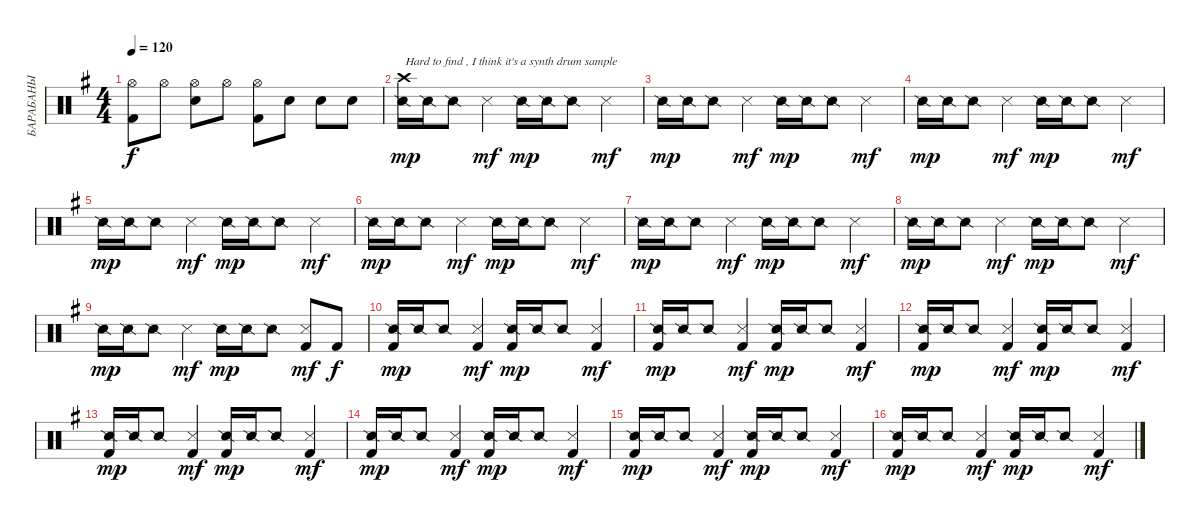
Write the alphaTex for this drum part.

\track ("БАРАБАНЫ" "БАРАБАНЫ") {instrument percussion}
\staff {score}
\articulation defaults
\ts (4 4)
\tempo 120
\clef neutral
\ks g
("Hi-Hat (open)" "Kick (hit) 2").8{dy f} "Hi-Hat (open)".8 ("Hi-Hat (open)" "Electric Snare (hit)").8 "Hi-Hat (open)".8 ("Hi-Hat (open)" "Kick (hit) 2").8 "Electric Snare (hit)".8 "Electric Snare (hit)".8 "Electric Snare (hit)".8 |
("Crash high (hit)" "Snare (side stick) 2").16{txt "Hard to find , I think it's a synth drum sample" dy mp} "Snare (side stick) 2".16 "Snare (side stick) 2".8 "Snare (side stick) 3".4{dy mf} "Snare (side stick) 2".16{dy mp} "Snare (side stick) 2".16 "Snare (side stick) 2".8 "Snare (side stick) 3".4{dy mf} |
"Snare (side stick) 2".16{dy mp} "Snare (side stick) 2".16 "Snare (side stick) 2".8 "Snare (side stick) 3".4{dy mf} "Snare (side stick) 2".16{dy mp} "Snare (side stick) 2".16 "Snare (side stick) 2".8 "Snare (side stick) 3".4{dy mf} |
"Snare (side stick) 2".16{dy mp} "Snare (side stick) 2".16 "Snare (side stick) 2".8 "Snare (side stick) 3".4{dy mf} "Snare (side stick) 2".16{dy mp} "Snare (side stick) 2".16 "Snare (side stick) 2".8 "Snare (side stick) 3".4{dy mf} |
"Snare (side stick) 2".16{dy mp} "Snare (side stick) 2".16 "Snare (side stick) 2".8 "Snare (side stick) 3".4{dy mf} "Snare (side stick) 2".16{dy mp} "Snare (side stick) 2".16 "Snare (side stick) 2".8 "Snare (side stick) 3".4{dy mf} |
"Snare (side stick) 2".16{dy mp} "Snare (side stick) 2".16 "Snare (side stick) 2".8 "Snare (side stick) 3".4{dy mf} "Snare (side stick) 2".16{dy mp} "Snare (side stick) 2".16 "Snare (side stick) 2".8 "Snare (side stick) 3".4{dy mf} |
"Snare (side stick) 2".16{dy mp} "Snare (side stick) 2".16 "Snare (side stick) 2".8 "Snare (side stick) 3".4{dy mf} "Snare (side stick) 2".16{dy mp} "Snare (side stick) 2".16 "Snare (side stick) 2".8 "Snare (side stick) 3".4{dy mf} |
"Snare (side stick) 2".16{dy mp} "Snare (side stick) 2".16 "Snare (side stick) 2".8 "Snare (side stick) 3".4{dy mf} "Snare (side stick) 2".16{dy mp} "Snare (side stick) 2".16 "Snare (side stick) 2".8 "Snare (side stick) 3".4{dy mf} |
"Snare (side stick) 2".16{dy mp} "Snare (side stick) 2".16 "Snare (side stick) 2".8 "Snare (side stick) 3".4{dy mf} "Snare (side stick) 2".16{dy mp} "Snare (side stick) 2".16 "Snare (side stick) 2".8 ("Snare (side stick) 3" "Kick (hit) 2").8{dy mf} "Kick (hit) 2".8{dy f} |
("Snare (side stick) 2" "Kick (hit) 2").16{dy mp} "Snare (side stick) 2".16 "Snare (side stick) 2".8 ("Snare (side stick) 3" "Kick (hit) 2").4{dy mf} ("Snare (side stick) 2" "Kick (hit) 2").16{dy mp} "Snare (side stick) 2".16 "Snare (side stick) 2".8 ("Snare (side stick) 3" "Kick (hit) 2").4{dy mf} |
("Snare (side stick) 2" "Kick (hit) 2").16{dy mp} "Snare (side stick) 2".16 "Snare (side stick) 2".8 ("Snare (side stick) 3" "Kick (hit) 2").4{dy mf} ("Snare (side stick) 2" "Kick (hit) 2").16{dy mp} "Snare (side stick) 2".16 "Snare (side stick) 2".8 ("Snare (side stick) 3" "Kick (hit) 2").4{dy mf} |
("Snare (side stick) 2" "Kick (hit) 2").16{dy mp} "Snare (side stick) 2".16 "Snare (side stick) 2".8 ("Snare (side stick) 3" "Kick (hit) 2").4{dy mf} ("Snare (side stick) 2" "Kick (hit) 2").16{dy mp} "Snare (side stick) 2".16 "Snare (side stick) 2".8 ("Snare (side stick) 3" "Kick (hit) 2").4{dy mf} |
("Snare (side stick) 2" "Kick (hit) 2").16{dy mp} "Snare (side stick) 2".16 "Snare (side stick) 2".8 ("Snare (side stick) 3" "Kick (hit) 2").4{dy mf} ("Snare (side stick) 2" "Kick (hit) 2").16{dy mp} "Snare (side stick) 2".16 "Snare (side stick) 2".8 ("Snare (side stick) 3" "Kick (hit) 2").4{dy mf} |
("Snare (side stick) 2" "Kick (hit) 2").16{dy mp} "Snare (side stick) 2".16 "Snare (side stick) 2".8 ("Snare (side stick) 3" "Kick (hit) 2").4{dy mf} ("Snare (side stick) 2" "Kick (hit) 2").16{dy mp} "Snare (side stick) 2".16 "Snare (side stick) 2".8 ("Snare (side stick) 3" "Kick (hit) 2").4{dy mf} |
("Snare (side stick) 2" "Kick (hit) 2").16{dy mp} "Snare (side stick) 2".16 "Snare (side stick) 2".8 ("Snare (side stick) 3" "Kick (hit) 2").4{dy mf} ("Snare (side stick) 2" "Kick (hit) 2").16{dy mp} "Snare (side stick) 2".16 "Snare (side stick) 2".8 ("Snare (side stick) 3" "Kick (hit) 2").4{dy mf} |
("Snare (side stick) 2" "Kick (hit) 2").16{dy mp} "Snare (side stick) 2".16 "Snare (side stick) 2".8 ("Snare (side stick) 3" "Kick (hit) 2").4{dy mf} ("Snare (side stick) 2" "Kick (hit) 2").16{dy mp} "Snare (side stick) 2".16 "Snare (side stick) 2".8 ("Snare (side stick) 3" "Kick (hit) 2").4{dy mf}
